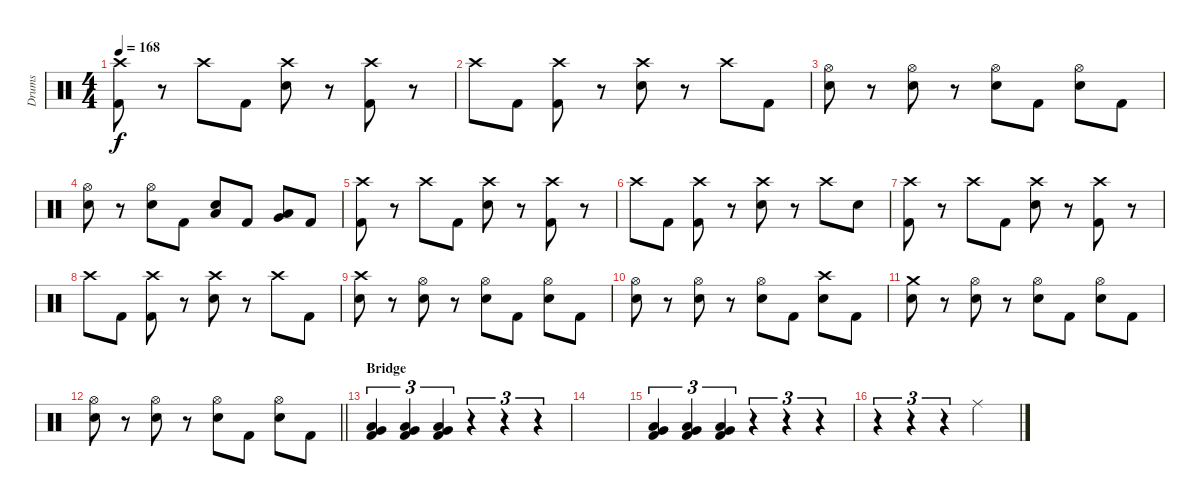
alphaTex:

\track ("Drums" "Drums") {instrument percussion}
\staff {score}
\articulation defaults
\ts (4 4)
\tempo 168
\clef neutral
\ks c
("Crash high (hit)" "Kick (hit) 2").8{dy f} r.8 "Crash high (hit)".8 "Kick (hit) 2".8 ("Crash high (hit)" "Snare (hit) 2").8 r.8 ("Crash high (hit)" "Kick (hit) 2").8 r.8 |
"Crash high (hit)".8 "Kick (hit) 2".8 ("Crash high (hit)" "Kick (hit) 2").8 r.8 ("Crash high (hit)" "Snare (hit) 2").8 r.8 "Crash high (hit)".8 "Kick (hit) 2".8 |
("Hi-Hat (open)" "Snare (hit) 2").8 r.8 ("Hi-Hat (open)" "Snare (hit) 2").8 r.8 ("Hi-Hat (open)" "Snare (hit) 2").8 "Kick (hit) 2".8 ("Hi-Hat (open)" "Snare (hit) 2").8 "Kick (hit) 2".8 |
("Hi-Hat (open)" "Snare (hit) 2").8 r.8 ("Hi-Hat (open)" "Snare (hit) 2").8 "Kick (hit) 2".8 ("Low Floor Tom (hit)" "Snare (hit) 2").8 "Kick (hit) 2".8 ("Low Tom (hit)" "Very Low Tom (hit)").8 "Kick (hit) 2".8 |
("Crash high (hit)" "Kick (hit) 2").8 r.8 "Crash high (hit)".8 "Kick (hit) 2".8 ("Crash high (hit)" "Snare (hit) 2").8 r.8 ("Crash high (hit)" "Kick (hit) 2").8 r.8 |
"Crash high (hit)".8 "Kick (hit) 2".8 ("Crash high (hit)" "Kick (hit) 2").8 r.8 ("Crash high (hit)" "Snare (hit) 2").8 r.8 "Crash high (hit)".8 "Snare (hit) 2".8 |
("Crash high (hit)" "Kick (hit) 2").8 r.8 "Crash high (hit)".8 "Kick (hit) 2".8 ("Crash high (hit)" "Snare (hit) 2").8 r.8 ("Crash high (hit)" "Kick (hit) 2").8 r.8 |
"Crash high (hit)".8 "Kick (hit) 2".8 ("Crash high (hit)" "Kick (hit) 2").8 r.8 ("Crash high (hit)" "Snare (hit) 2").8 r.8 "Crash high (hit)".8 "Kick (hit) 2".8 |
("Crash high (hit)" "Snare (hit) 2").8 r.8 ("Hi-Hat (open)" "Snare (hit) 2").8 r.8 ("Hi-Hat (open)" "Snare (hit) 2").8 "Kick (hit) 2".8 ("Hi-Hat (open)" "Snare (hit) 2").8 "Kick (hit) 2".8 |
("Hi-Hat (open)" "Snare (hit) 2").8 r.8 ("Hi-Hat (open)" "Snare (hit) 2").8 r.8 ("Hi-Hat (open)" "Snare (hit) 2").8 "Kick (hit) 2".8 ("Crash high (hit)" "Snare (hit) 2").8 "Kick (hit) 2".8 |
("Crash medium (hit)" "Snare (hit) 2").8 r.8 ("Hi-Hat (open)" "Snare (hit) 2").8 r.8 ("Hi-Hat (open)" "Snare (hit) 2").8 "Kick (hit) 2".8 ("Hi-Hat (open)" "Snare (hit) 2").8 "Kick (hit) 2".8 |
\barLineRight lightlight
("Hi-Hat (open)" "Snare (hit) 2").8 r.8 ("Hi-Hat (open)" "Snare (hit) 2").8 r.8 ("Hi-Hat (open)" "Snare (hit) 2").8 "Kick (hit) 2".8 ("Hi-Hat (open)" "Snare (hit) 2").8 "Kick (hit) 2".8 |
\section ("" "Bridge")
("Low Floor Tom (hit)" "Very Low Tom (hit)" "Kick (hit) 2").4{tu (3 2)} ("Low Floor Tom (hit)" "Very Low Tom (hit)" "Kick (hit) 2").4{tu (3 2)} ("Low Floor Tom (hit)" "Very Low Tom (hit)" "Kick (hit) 2").4{tu (3 2)} r.4{tu (3 2)} r.4{tu (3 2)} r.4{tu (3 2)} |
|
("Low Floor Tom (hit)" "Very Low Tom (hit)" "Kick (hit) 2").4{tu (3 2)} ("Low Floor Tom (hit)" "Very Low Tom (hit)" "Kick (hit) 2").4{tu (3 2)} ("Low Floor Tom (hit)" "Very Low Tom (hit)" "Kick (hit) 2").4{tu (3 2)} r.4{tu (3 2)} r.4{tu (3 2)} r.4{tu (3 2)} |
r.4{tu (3 2)} r.4{tu (3 2)} r.4{tu (3 2)} "Ride (middle)".2
